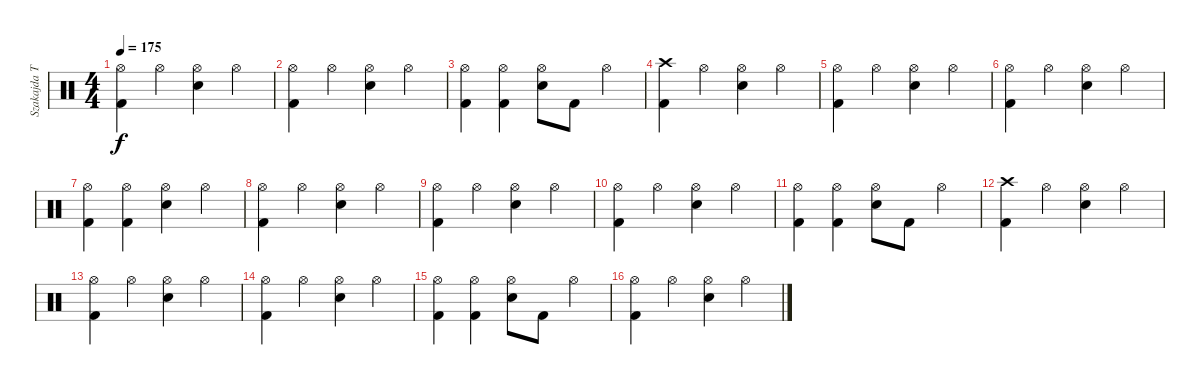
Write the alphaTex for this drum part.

\track ("Szakajda Tibi" "Szakajda T") {instrument percussion}
\staff {score}
\articulation defaults
\ts (4 4)
\tempo 175
\clef neutral
\ks c
("Hi-Hat (open)" "Kick (hit) 2").4{dy f} "Hi-Hat (open)".4 ("Hi-Hat (open)" "Snare (hit) 2").4 "Hi-Hat (open)".4 |
("Hi-Hat (open)" "Kick (hit) 2").4 "Hi-Hat (open)".4 ("Hi-Hat (open)" "Snare (hit) 2").4 "Hi-Hat (open)".4 |
("Hi-Hat (open)" "Kick (hit) 2").4 ("Hi-Hat (open)" "Kick (hit) 2").4 ("Hi-Hat (open)" "Snare (hit) 2").8 "Kick (hit) 2".8 "Hi-Hat (open)".4 |
("Crash high (hit)" "Kick (hit) 2").4 "Hi-Hat (open)".4 ("Hi-Hat (open)" "Snare (hit) 2").4 "Hi-Hat (open)".4 |
("Hi-Hat (open)" "Kick (hit) 2").4 "Hi-Hat (open)".4 ("Hi-Hat (open)" "Snare (hit) 2").4 "Hi-Hat (open)".4 |
("Hi-Hat (open)" "Kick (hit) 2").4 "Hi-Hat (open)".4 ("Hi-Hat (open)" "Snare (hit) 2").4 "Hi-Hat (open)".4 |
("Hi-Hat (open)" "Kick (hit) 2").4 ("Hi-Hat (open)" "Kick (hit) 2").4 ("Hi-Hat (open)" "Snare (hit) 2").4 "Hi-Hat (open)".4 |
("Hi-Hat (open)" "Kick (hit) 2").4 "Hi-Hat (open)".4 ("Hi-Hat (open)" "Snare (hit) 2").4 "Hi-Hat (open)".4 |
("Hi-Hat (open)" "Kick (hit) 2").4 "Hi-Hat (open)".4 ("Hi-Hat (open)" "Snare (hit) 2").4 "Hi-Hat (open)".4 |
("Hi-Hat (open)" "Kick (hit) 2").4 "Hi-Hat (open)".4 ("Hi-Hat (open)" "Snare (hit) 2").4 "Hi-Hat (open)".4 |
("Hi-Hat (open)" "Kick (hit) 2").4 ("Hi-Hat (open)" "Kick (hit) 2").4 ("Hi-Hat (open)" "Snare (hit) 2").8 "Kick (hit) 2".8 "Hi-Hat (open)".4 |
("Crash high (hit)" "Kick (hit) 2").4 "Hi-Hat (open)".4 ("Hi-Hat (open)" "Snare (hit) 2").4 "Hi-Hat (open)".4 |
("Hi-Hat (open)" "Kick (hit) 2").4 "Hi-Hat (open)".4 ("Hi-Hat (open)" "Snare (hit) 2").4 "Hi-Hat (open)".4 |
("Hi-Hat (open)" "Kick (hit) 2").4 "Hi-Hat (open)".4 ("Hi-Hat (open)" "Snare (hit) 2").4 "Hi-Hat (open)".4 |
("Hi-Hat (open)" "Kick (hit) 2").4 ("Hi-Hat (open)" "Kick (hit) 2").4 ("Hi-Hat (open)" "Snare (hit) 2").8 "Kick (hit) 2".8 "Hi-Hat (open)".4 |
("Hi-Hat (open)" "Kick (hit) 2").4 "Hi-Hat (open)".4 ("Hi-Hat (open)" "Snare (hit) 2").4 "Hi-Hat (open)".4
